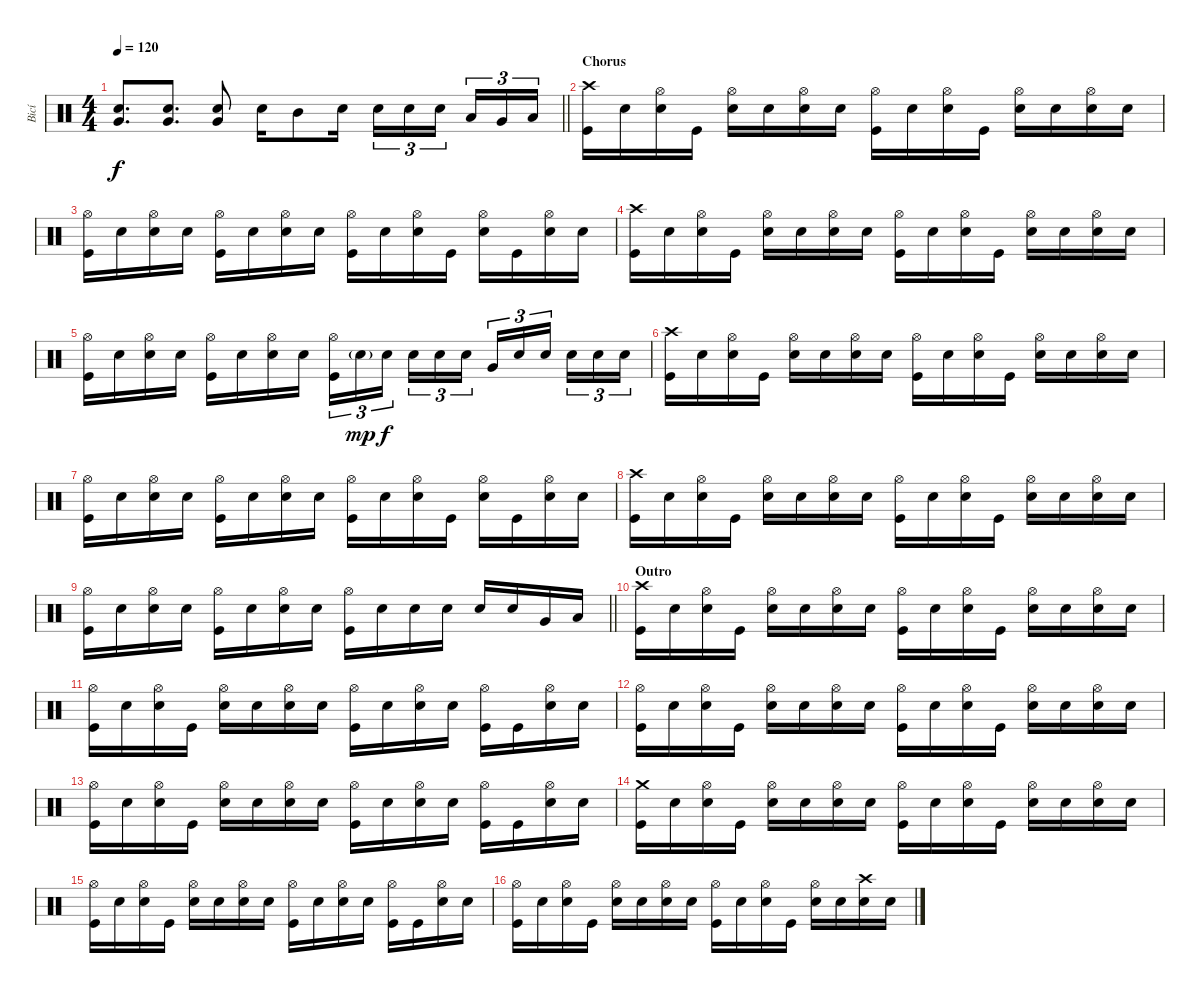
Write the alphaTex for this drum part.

\track ("Bicí" "Bicí") {instrument percussion}
\staff {score}
\articulation defaults
\ts (4 4)
\tempo 120
\clef neutral
\barLineRight lightlight
\ks c
("Very Low Tom (hit)" "Electric Snare (hit)").8{d dy f} ("Very Low Tom (hit)" "Electric Snare (hit)").8{d} ("Very Low Tom (hit)" "Electric Snare (hit)").8 "Electric Snare (hit)".16 "Mid Tom (hit)".8 "Electric Snare (hit)".16 "Electric Snare (hit)".16{tu (3 2)} "Electric Snare (hit)".16{tu (3 2)} "Electric Snare (hit)".16{tu (3 2) beam splitsecondary} "Low Tom (hit)".16{tu (3 2)} "Very Low Tom (hit)".16{tu (3 2)} "Low Floor Tom (hit)".16{tu (3 2)} |
\section ("" "Chorus")
("Crash high (hit)" "Kick (hit)").16 "Snare (hit)".16 ("Hi-Hat (open)" "Electric Snare (hit)").16 "Kick (hit)".16 ("Hi-Hat (open)" "Snare (hit)").16 "Snare (hit)".16 ("Hi-Hat (open)" "Electric Snare (hit)").16 "Snare (hit)".16 ("Hi-Hat (open)" "Kick (hit)").16 "Snare (hit)".16 ("Hi-Hat (open)" "Electric Snare (hit)").16 "Kick (hit)".16 ("Hi-Hat (open)" "Snare (hit)").16 "Snare (hit)".16 ("Hi-Hat (open)" "Electric Snare (hit)").16 "Snare (hit)".16 |
("Hi-Hat (open)" "Kick (hit)").16 "Snare (hit)".16 ("Hi-Hat (open)" "Electric Snare (hit)").16 "Snare (hit)".16 ("Hi-Hat (open)" "Kick (hit)").16 "Snare (hit)".16 ("Hi-Hat (open)" "Electric Snare (hit)").16 "Snare (hit)".16 ("Hi-Hat (open)" "Kick (hit)").16 "Snare (hit)".16 ("Hi-Hat (open)" "Electric Snare (hit)").16 "Kick (hit)".16 ("Hi-Hat (open)" "Snare (hit)").16 "Kick (hit)".16 ("Hi-Hat (open)" "Electric Snare (hit)").16 "Snare (hit)".16 |
("Crash high (hit)" "Kick (hit)").16 "Snare (hit)".16 ("Hi-Hat (open)" "Electric Snare (hit)").16 "Kick (hit)".16 ("Hi-Hat (open)" "Snare (hit)").16 "Snare (hit)".16 ("Hi-Hat (open)" "Electric Snare (hit)").16 "Snare (hit)".16 ("Hi-Hat (open)" "Kick (hit)").16 "Snare (hit)".16 ("Hi-Hat (open)" "Electric Snare (hit)").16 "Kick (hit)".16 ("Hi-Hat (open)" "Snare (hit)").16 "Snare (hit)".16 ("Hi-Hat (open)" "Electric Snare (hit)").16 "Snare (hit)".16 |
("Hi-Hat (open)" "Kick (hit)").16 "Snare (hit)".16 ("Hi-Hat (open)" "Electric Snare (hit)").16 "Snare (hit)".16 ("Hi-Hat (open)" "Kick (hit)").16 "Snare (hit)".16 ("Hi-Hat (open)" "Electric Snare (hit)").16 "Snare (hit)".16 ("Hi-Hat (open)" "Kick (hit)").16{tu (3 2)} "Electric Snare (hit)"{g}.16{tu (3 2) dy mp} "Electric Snare (hit)".16{tu (3 2) dy f beam splitsecondary} "Electric Snare (hit)".16{tu (3 2)} "Electric Snare (hit)".16{tu (3 2)} "Electric Snare (hit)".16{tu (3 2)} "Very Low Tom (hit)".16{tu (3 2)} "Electric Snare (hit)".16{tu (3 2)} "Electric Snare (hit)".16{tu (3 2) beam splitsecondary} "Electric Snare (hit)".16{tu (3 2)} "Electric Snare (hit)".16{tu (3 2)} "Electric Snare (hit)".16{tu (3 2)} |
("Crash high (hit)" "Kick (hit)").16 "Snare (hit)".16 ("Hi-Hat (open)" "Electric Snare (hit)").16 "Kick (hit)".16 ("Hi-Hat (open)" "Snare (hit)").16 "Snare (hit)".16 ("Hi-Hat (open)" "Electric Snare (hit)").16 "Snare (hit)".16 ("Hi-Hat (open)" "Kick (hit)").16 "Snare (hit)".16 ("Hi-Hat (open)" "Electric Snare (hit)").16 "Kick (hit)".16 ("Hi-Hat (open)" "Snare (hit)").16 "Snare (hit)".16 ("Hi-Hat (open)" "Electric Snare (hit)").16 "Snare (hit)".16 |
("Hi-Hat (open)" "Kick (hit)").16 "Snare (hit)".16 ("Hi-Hat (open)" "Electric Snare (hit)").16 "Snare (hit)".16 ("Hi-Hat (open)" "Kick (hit)").16 "Snare (hit)".16 ("Hi-Hat (open)" "Electric Snare (hit)").16 "Snare (hit)".16 ("Hi-Hat (open)" "Kick (hit)").16 "Snare (hit)".16 ("Hi-Hat (open)" "Electric Snare (hit)").16 "Kick (hit)".16 ("Hi-Hat (open)" "Snare (hit)").16 "Kick (hit)".16 ("Hi-Hat (open)" "Electric Snare (hit)").16 "Snare (hit)".16 |
("Crash high (hit)" "Kick (hit)").16 "Snare (hit)".16 ("Hi-Hat (open)" "Electric Snare (hit)").16 "Kick (hit)".16 ("Hi-Hat (open)" "Snare (hit)").16 "Snare (hit)".16 ("Hi-Hat (open)" "Electric Snare (hit)").16 "Snare (hit)".16 ("Hi-Hat (open)" "Kick (hit)").16 "Snare (hit)".16 ("Hi-Hat (open)" "Electric Snare (hit)").16 "Kick (hit)".16 ("Hi-Hat (open)" "Snare (hit)").16 "Snare (hit)".16 ("Hi-Hat (open)" "Electric Snare (hit)").16 "Snare (hit)".16 |
\barLineRight lightlight
("Hi-Hat (open)" "Kick (hit)").16 "Snare (hit)".16 ("Hi-Hat (open)" "Electric Snare (hit)").16 "Snare (hit)".16 ("Hi-Hat (open)" "Kick (hit)").16 "Snare (hit)".16 ("Hi-Hat (open)" "Electric Snare (hit)").16 "Snare (hit)".16 ("Hi-Hat (open)" "Kick (hit)").16 "Electric Snare (hit)".16 "Electric Snare (hit)".16 "Electric Snare (hit)".16 "Electric Snare (hit)".16 "Electric Snare (hit)".16 "Very Low Tom (hit)".16 "Low Floor Tom (hit)".16 |
\section ("" "Outro")
("Crash high (hit)" "Kick (hit)").16 "Snare (hit)".16 ("Hi-Hat (open)" "Electric Snare (hit)").16 "Kick (hit)".16 ("Hi-Hat (open)" "Snare (hit)").16 "Snare (hit)".16 ("Hi-Hat (open)" "Electric Snare (hit)").16 "Snare (hit)".16 ("Hi-Hat (open)" "Kick (hit)").16 "Snare (hit)".16 ("Hi-Hat (open)" "Electric Snare (hit)").16 "Kick (hit)".16 ("Hi-Hat (open)" "Snare (hit)").16 "Snare (hit)".16 ("Hi-Hat (open)" "Electric Snare (hit)").16 "Snare (hit)".16 |
("Hi-Hat (open)" "Kick (hit)").16 "Snare (hit)".16 ("Hi-Hat (open)" "Electric Snare (hit)").16 "Kick (hit)".16 ("Hi-Hat (open)" "Snare (hit)").16 "Snare (hit)".16 ("Hi-Hat (open)" "Electric Snare (hit)").16 "Snare (hit)".16 ("Hi-Hat (open)" "Kick (hit)").16 "Snare (hit)".16 ("Hi-Hat (open)" "Electric Snare (hit)").16 "Snare (hit)".16 ("Hi-Hat (open)" "Kick (hit)").16 "Kick (hit)".16 ("Hi-Hat (open)" "Electric Snare (hit)").16 "Snare (hit)".16 |
("Hi-Hat (open)" "Kick (hit)").16 "Snare (hit)".16 ("Hi-Hat (open)" "Electric Snare (hit)").16 "Kick (hit)".16 ("Hi-Hat (open)" "Snare (hit)").16 "Snare (hit)".16 ("Hi-Hat (open)" "Electric Snare (hit)").16 "Snare (hit)".16 ("Hi-Hat (open)" "Kick (hit)").16 "Snare (hit)".16 ("Hi-Hat (open)" "Electric Snare (hit)").16 "Kick (hit)".16 ("Hi-Hat (open)" "Snare (hit)").16 "Snare (hit)".16 ("Hi-Hat (open)" "Electric Snare (hit)").16 "Snare (hit)".16 |
("Hi-Hat (open)" "Kick (hit)").16 "Snare (hit)".16 ("Hi-Hat (open)" "Electric Snare (hit)").16 "Kick (hit)".16 ("Hi-Hat (open)" "Snare (hit)").16 "Snare (hit)".16 ("Hi-Hat (open)" "Electric Snare (hit)").16 "Snare (hit)".16 ("Hi-Hat (open)" "Kick (hit)").16 "Snare (hit)".16 ("Hi-Hat (open)" "Electric Snare (hit)").16 "Snare (hit)".16 ("Hi-Hat (open)" "Kick (hit)").16 "Kick (hit)".16 ("Hi-Hat (open)" "Electric Snare (hit)").16 "Snare (hit)".16 |
("Crash medium (hit)" "Kick (hit)").16 "Snare (hit)".16 ("Hi-Hat (open)" "Electric Snare (hit)").16 "Kick (hit)".16 ("Hi-Hat (open)" "Snare (hit)").16 "Snare (hit)".16 ("Hi-Hat (open)" "Electric Snare (hit)").16 "Snare (hit)".16 ("Hi-Hat (open)" "Kick (hit)").16 "Snare (hit)".16 ("Hi-Hat (open)" "Electric Snare (hit)").16 "Kick (hit)".16 ("Hi-Hat (open)" "Snare (hit)").16 "Snare (hit)".16 ("Hi-Hat (open)" "Electric Snare (hit)").16 "Snare (hit)".16 |
("Hi-Hat (open)" "Kick (hit)").16 "Snare (hit)".16 ("Hi-Hat (open)" "Electric Snare (hit)").16 "Kick (hit)".16 ("Hi-Hat (open)" "Snare (hit)").16 "Snare (hit)".16 ("Hi-Hat (open)" "Electric Snare (hit)").16 "Snare (hit)".16 ("Hi-Hat (open)" "Kick (hit)").16 "Snare (hit)".16 ("Hi-Hat (open)" "Electric Snare (hit)").16 "Snare (hit)".16 ("Hi-Hat (open)" "Kick (hit)").16 "Kick (hit)".16 ("Hi-Hat (open)" "Electric Snare (hit)").16 "Snare (hit)".16 |
("Hi-Hat (open)" "Kick (hit)").16 "Snare (hit)".16 ("Hi-Hat (open)" "Electric Snare (hit)").16 "Kick (hit)".16 ("Hi-Hat (open)" "Snare (hit)").16 "Snare (hit)".16 ("Hi-Hat (open)" "Electric Snare (hit)").16 "Snare (hit)".16 ("Hi-Hat (open)" "Kick (hit)").16 "Snare (hit)".16 ("Hi-Hat (open)" "Electric Snare (hit)").16 "Kick (hit)".16 ("Hi-Hat (open)" "Snare (hit)").16 "Snare (hit)".16 ("Crash high (hit)" "Electric Snare (hit)").16 "Snare (hit)".16
